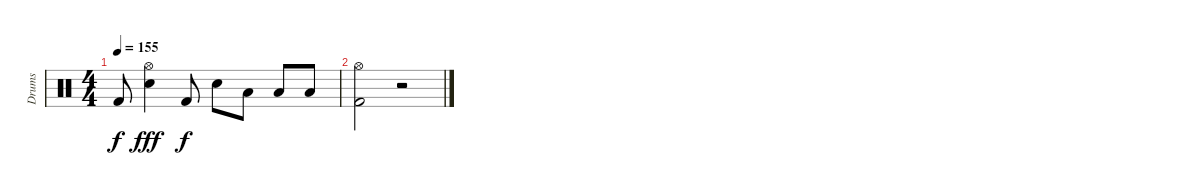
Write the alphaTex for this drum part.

\track ("Drums" "Drums") {instrument percussion}
\staff {score}
\articulation defaults
\ts (4 4)
\tempo 155
\clef neutral
\ks c "Kick (hit) 2".8{dy f}
("Electric Snare (hit)" "Hi-Hat (open)").4{dy fff} "Kick (hit) 2".8{dy f} "Electric Snare (hit)".8 "Low Tom (hit)".8 "Low Tom (hit)".8 "Low Floor Tom (hit)".8 |
("Kick (hit) 2" "Hi-Hat (open)").2 r.2
